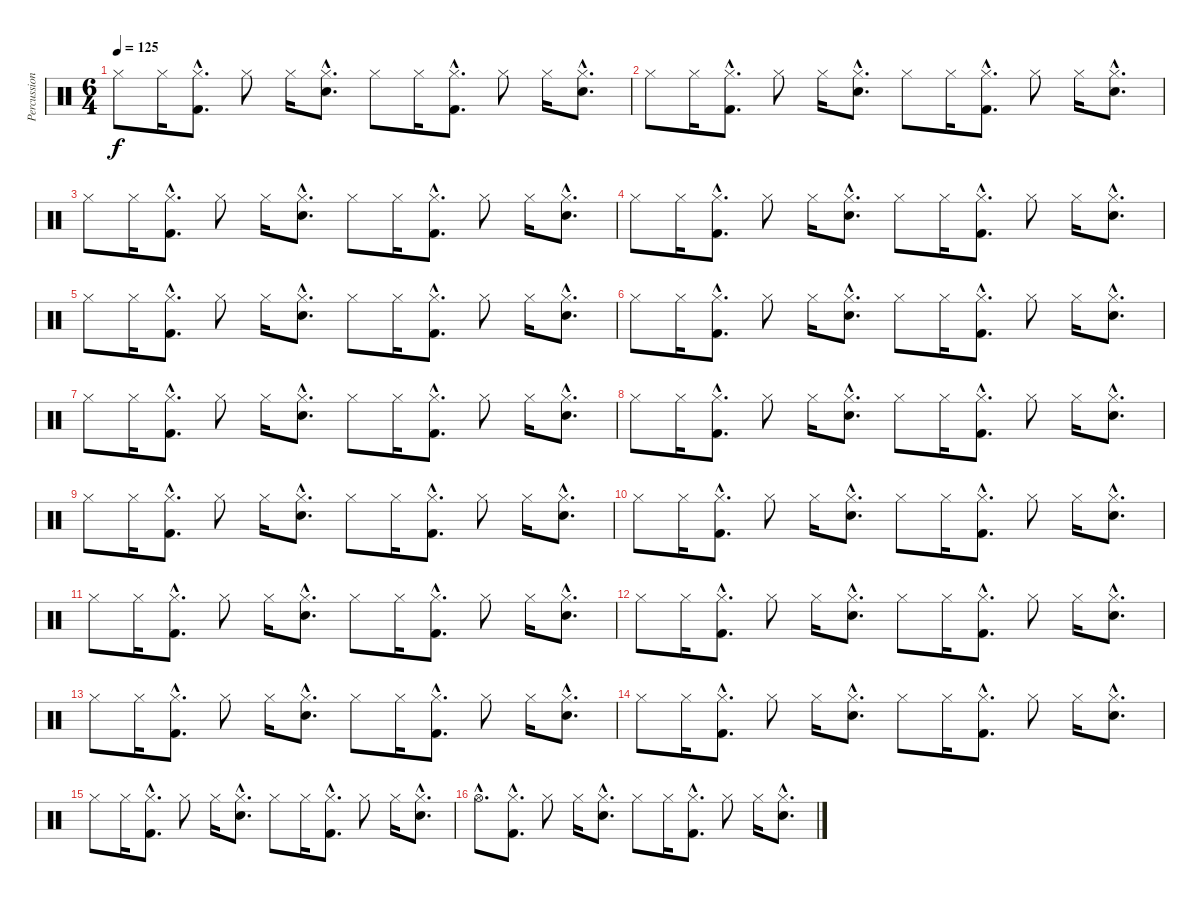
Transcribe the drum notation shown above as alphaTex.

\track ("Percussions" "Percussion") {instrument percussion}
\staff {score}
\articulation defaults
\ts (6 4)
\tempo 125
\clef neutral
\ks c "Hi-Hat (closed)".8{dy f} "Hi-Hat (closed)".16
("Hi-Hat (closed)"{hac} "Kick (hit) 2"{hac}).8{d} "Hi-Hat (closed)".8 "Hi-Hat (closed)".16 ("Hi-Hat (closed)"{hac} "Electric Snare (hit)"{hac}).8{d} "Hi-Hat (closed)".8 "Hi-Hat (closed)".16 ("Hi-Hat (closed)"{hac} "Kick (hit) 2"{hac}).8{d} "Hi-Hat (closed)".8 "Hi-Hat (closed)".16 ("Hi-Hat (closed)"{hac} "Electric Snare (hit)"{hac}).8{d} |
"Hi-Hat (closed)".8 "Hi-Hat (closed)".16 ("Hi-Hat (closed)"{hac} "Kick (hit) 2"{hac}).8{d} "Hi-Hat (closed)".8 "Hi-Hat (closed)".16 ("Hi-Hat (closed)"{hac} "Electric Snare (hit)"{hac}).8{d} "Hi-Hat (closed)".8 "Hi-Hat (closed)".16 ("Hi-Hat (closed)"{hac} "Kick (hit) 2"{hac}).8{d} "Hi-Hat (closed)".8 "Hi-Hat (closed)".16 ("Hi-Hat (closed)"{hac} "Electric Snare (hit)"{hac}).8{d} |
"Hi-Hat (closed)".8 "Hi-Hat (closed)".16 ("Hi-Hat (closed)"{hac} "Kick (hit) 2"{hac}).8{d} "Hi-Hat (closed)".8 "Hi-Hat (closed)".16 ("Hi-Hat (closed)"{hac} "Electric Snare (hit)"{hac}).8{d} "Hi-Hat (closed)".8 "Hi-Hat (closed)".16 ("Hi-Hat (closed)"{hac} "Kick (hit) 2"{hac}).8{d} "Hi-Hat (closed)".8 "Hi-Hat (closed)".16 ("Hi-Hat (closed)"{hac} "Electric Snare (hit)"{hac}).8{d} |
"Hi-Hat (closed)".8 "Hi-Hat (closed)".16 ("Hi-Hat (closed)"{hac} "Kick (hit) 2"{hac}).8{d} "Hi-Hat (closed)".8 "Hi-Hat (closed)".16 ("Hi-Hat (closed)"{hac} "Electric Snare (hit)"{hac}).8{d} "Hi-Hat (closed)".8 "Hi-Hat (closed)".16 ("Hi-Hat (closed)"{hac} "Kick (hit) 2"{hac}).8{d} "Hi-Hat (closed)".8 "Hi-Hat (closed)".16 ("Hi-Hat (closed)"{hac} "Electric Snare (hit)"{hac}).8{d} |
"Hi-Hat (closed)".8 "Hi-Hat (closed)".16 ("Hi-Hat (closed)"{hac} "Kick (hit) 2"{hac}).8{d} "Hi-Hat (closed)".8 "Hi-Hat (closed)".16 ("Hi-Hat (closed)"{hac} "Electric Snare (hit)"{hac}).8{d} "Hi-Hat (closed)".8 "Hi-Hat (closed)".16 ("Hi-Hat (closed)"{hac} "Kick (hit) 2"{hac}).8{d} "Hi-Hat (closed)".8 "Hi-Hat (closed)".16 ("Hi-Hat (closed)"{hac} "Electric Snare (hit)"{hac}).8{d} |
"Hi-Hat (closed)".8 "Hi-Hat (closed)".16 ("Hi-Hat (closed)"{hac} "Kick (hit) 2"{hac}).8{d} "Hi-Hat (closed)".8 "Hi-Hat (closed)".16 ("Hi-Hat (closed)"{hac} "Electric Snare (hit)"{hac}).8{d} "Hi-Hat (closed)".8 "Hi-Hat (closed)".16 ("Hi-Hat (closed)"{hac} "Kick (hit) 2"{hac}).8{d} "Hi-Hat (closed)".8 "Hi-Hat (closed)".16 ("Hi-Hat (closed)"{hac} "Electric Snare (hit)"{hac}).8{d} |
"Hi-Hat (closed)".8 "Hi-Hat (closed)".16 ("Hi-Hat (closed)"{hac} "Kick (hit) 2"{hac}).8{d} "Hi-Hat (closed)".8 "Hi-Hat (closed)".16 ("Hi-Hat (closed)"{hac} "Electric Snare (hit)"{hac}).8{d} "Hi-Hat (closed)".8 "Hi-Hat (closed)".16 ("Hi-Hat (closed)"{hac} "Kick (hit) 2"{hac}).8{d} "Hi-Hat (closed)".8 "Hi-Hat (closed)".16 ("Hi-Hat (closed)"{hac} "Electric Snare (hit)"{hac}).8{d} |
"Hi-Hat (closed)".8 "Hi-Hat (closed)".16 ("Hi-Hat (closed)"{hac} "Kick (hit) 2"{hac}).8{d} "Hi-Hat (closed)".8 "Hi-Hat (closed)".16 ("Hi-Hat (closed)"{hac} "Electric Snare (hit)"{hac}).8{d} "Hi-Hat (closed)".8 "Hi-Hat (closed)".16 ("Hi-Hat (closed)"{hac} "Kick (hit) 2"{hac}).8{d} "Hi-Hat (closed)".8 "Hi-Hat (closed)".16 ("Hi-Hat (closed)"{hac} "Electric Snare (hit)"{hac}).8{d} |
"Hi-Hat (closed)".8 "Hi-Hat (closed)".16 ("Hi-Hat (closed)"{hac} "Kick (hit) 2"{hac}).8{d} "Hi-Hat (closed)".8 "Hi-Hat (closed)".16 ("Hi-Hat (closed)"{hac} "Electric Snare (hit)"{hac}).8{d} "Hi-Hat (closed)".8 "Hi-Hat (closed)".16 ("Hi-Hat (closed)"{hac} "Kick (hit) 2"{hac}).8{d} "Hi-Hat (closed)".8 "Hi-Hat (closed)".16 ("Hi-Hat (closed)"{hac} "Electric Snare (hit)"{hac}).8{d} |
"Hi-Hat (closed)".8 "Hi-Hat (closed)".16 ("Hi-Hat (closed)"{hac} "Kick (hit) 2"{hac}).8{d} "Hi-Hat (closed)".8 "Hi-Hat (closed)".16 ("Hi-Hat (closed)"{hac} "Electric Snare (hit)"{hac}).8{d} "Hi-Hat (closed)".8 "Hi-Hat (closed)".16 ("Hi-Hat (closed)"{hac} "Kick (hit) 2"{hac}).8{d} "Hi-Hat (closed)".8 "Hi-Hat (closed)".16 ("Hi-Hat (closed)"{hac} "Electric Snare (hit)"{hac}).8{d} |
"Hi-Hat (closed)".8 "Hi-Hat (closed)".16 ("Hi-Hat (closed)"{hac} "Kick (hit) 2"{hac}).8{d} "Hi-Hat (closed)".8 "Hi-Hat (closed)".16 ("Hi-Hat (closed)"{hac} "Electric Snare (hit)"{hac}).8{d} "Hi-Hat (closed)".8 "Hi-Hat (closed)".16 ("Hi-Hat (closed)"{hac} "Kick (hit) 2"{hac}).8{d} "Hi-Hat (closed)".8 "Hi-Hat (closed)".16 ("Hi-Hat (closed)"{hac} "Electric Snare (hit)"{hac}).8{d} |
"Hi-Hat (closed)".8 "Hi-Hat (closed)".16 ("Hi-Hat (closed)"{hac} "Kick (hit) 2"{hac}).8{d} "Hi-Hat (closed)".8 "Hi-Hat (closed)".16 ("Hi-Hat (closed)"{hac} "Electric Snare (hit)"{hac}).8{d} "Hi-Hat (closed)".8 "Hi-Hat (closed)".16 ("Hi-Hat (closed)"{hac} "Kick (hit) 2"{hac}).8{d} "Hi-Hat (closed)".8 "Hi-Hat (closed)".16 ("Hi-Hat (closed)"{hac} "Electric Snare (hit)"{hac}).8{d} |
"Hi-Hat (closed)".8 "Hi-Hat (closed)".16 ("Hi-Hat (closed)"{hac} "Kick (hit) 2"{hac}).8{d} "Hi-Hat (closed)".8 "Hi-Hat (closed)".16 ("Hi-Hat (closed)"{hac} "Electric Snare (hit)"{hac}).8{d} "Hi-Hat (closed)".8 "Hi-Hat (closed)".16 ("Hi-Hat (closed)"{hac} "Kick (hit) 2"{hac}).8{d} "Hi-Hat (closed)".8 "Hi-Hat (closed)".16 ("Hi-Hat (closed)"{hac} "Electric Snare (hit)"{hac}).8{d} |
"Hi-Hat (closed)".8 "Hi-Hat (closed)".16 ("Hi-Hat (closed)"{hac} "Kick (hit) 2"{hac}).8{d} "Hi-Hat (closed)".8 "Hi-Hat (closed)".16 ("Hi-Hat (closed)"{hac} "Electric Snare (hit)"{hac}).8{d} "Hi-Hat (closed)".8 "Hi-Hat (closed)".16 ("Hi-Hat (closed)"{hac} "Kick (hit) 2"{hac}).8{d} "Hi-Hat (closed)".8 "Hi-Hat (closed)".16 ("Hi-Hat (closed)"{hac} "Electric Snare (hit)"{hac}).8{d} |
"Hi-Hat (closed)".8 "Hi-Hat (closed)".16 ("Hi-Hat (closed)"{hac} "Kick (hit) 2"{hac}).8{d} "Hi-Hat (closed)".8 "Hi-Hat (closed)".16 ("Hi-Hat (closed)"{hac} "Electric Snare (hit)"{hac}).8{d} "Hi-Hat (closed)".8 "Hi-Hat (closed)".16 ("Hi-Hat (closed)"{hac} "Kick (hit) 2"{hac}).8{d} "Hi-Hat (closed)".8 "Hi-Hat (closed)".16 ("Hi-Hat (closed)"{hac} "Electric Snare (hit)"{hac}).8{d} |
"Hi-Hat (open)"{hac}.8{d} ("Hi-Hat (closed)"{hac} "Kick (hit) 2"{hac}).8{d} "Hi-Hat (closed)".8 "Hi-Hat (closed)".16 ("Hi-Hat (closed)"{hac} "Electric Snare (hit)"{hac}).8{d} "Hi-Hat (closed)".8 "Hi-Hat (closed)".16 ("Hi-Hat (closed)"{hac} "Kick (hit) 2"{hac}).8{d} "Hi-Hat (closed)".8 "Hi-Hat (closed)".16 ("Hi-Hat (closed)"{hac} "Electric Snare (hit)"{hac}).8{d}
